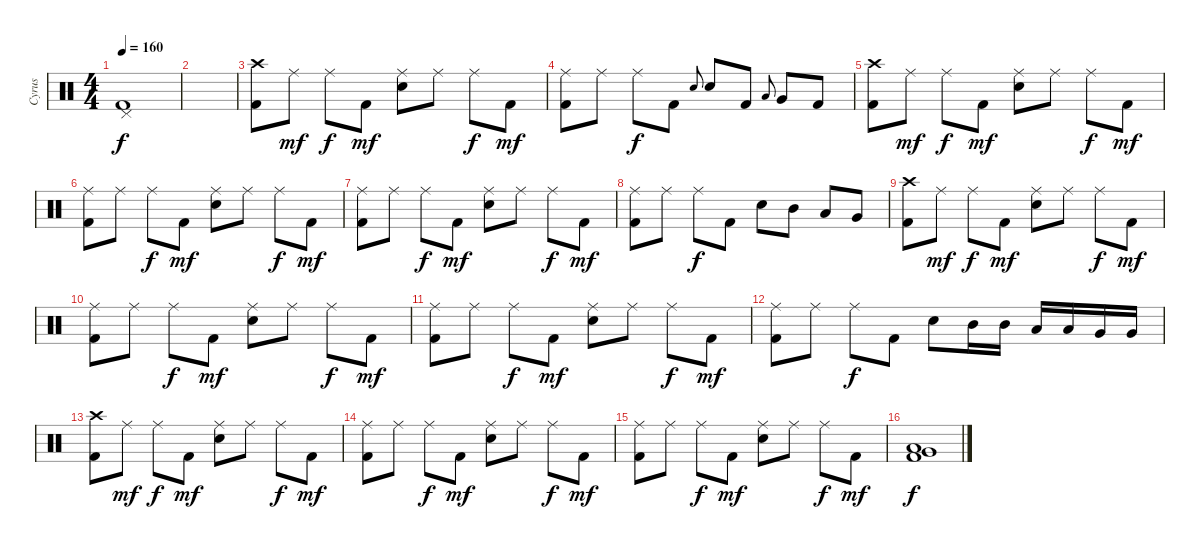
\track ("Cyrus" "Cyrus") {instrument percussion}
\staff {score}
\articulation defaults
\ts (4 4)
\tempo 160
\clef neutral
\ks c
("Pedal Hi-Hat (hit)" "Kick (hit) 2").1{dy f} |
|
("Crash high (hit)" "Kick (hit) 2").8 "Ride (middle)".8{dy mf} "Ride (middle)".8{dy f} "Kick (hit) 2".8{dy mf} ("Ride (middle)" "Snare (hit) 2").8 "Ride (middle)".8 "Ride (middle)".8{dy f} "Kick (hit) 2".8{dy mf} |
("Ride (middle)" "Kick (hit) 2").8 "Ride (middle)".8 "Ride (middle)".8{dy f} "Kick (hit) 2".8 "Snare (hit) 2".8{gr onbeat} "Snare (hit) 2".8 "Kick (hit) 2".8 "Low Tom (hit)".8{gr onbeat} "Very Low Tom (hit)".8 "Kick (hit) 2".8 |
("Crash high (hit)" "Kick (hit) 2").8 "Ride (middle)".8{dy mf} "Ride (middle)".8{dy f} "Kick (hit) 2".8{dy mf} ("Ride (middle)" "Snare (hit) 2").8 "Ride (middle)".8 "Ride (middle)".8{dy f} "Kick (hit) 2".8{dy mf} |
("Ride (middle)" "Kick (hit) 2").8 "Ride (middle)".8 "Ride (middle)".8{dy f} "Kick (hit) 2".8{dy mf} ("Ride (middle)" "Snare (hit) 2").8 "Ride (middle)".8 "Ride (middle)".8{dy f} "Kick (hit) 2".8{dy mf} |
("Ride (middle)" "Kick (hit) 2").8 "Ride (middle)".8 "Ride (middle)".8{dy f} "Kick (hit) 2".8{dy mf} ("Ride (middle)" "Snare (hit) 2").8 "Ride (middle)".8 "Ride (middle)".8{dy f} "Kick (hit) 2".8{dy mf} |
("Ride (middle)" "Kick (hit) 2").8 "Ride (middle)".8 "Ride (middle)".8{dy f} "Kick (hit) 2".8 "Snare (hit) 2".8 "Mid Tom (hit)".8 "Low Tom (hit)".8 "Very Low Tom (hit)".8 |
("Crash high (hit)" "Kick (hit) 2").8 "Ride (middle)".8{dy mf} "Ride (middle)".8{dy f} "Kick (hit) 2".8{dy mf} ("Ride (middle)" "Snare (hit) 2").8 "Ride (middle)".8 "Ride (middle)".8{dy f} "Kick (hit) 2".8{dy mf} |
("Ride (middle)" "Kick (hit) 2").8 "Ride (middle)".8 "Ride (middle)".8{dy f} "Kick (hit) 2".8{dy mf} ("Ride (middle)" "Snare (hit) 2").8 "Ride (middle)".8 "Ride (middle)".8{dy f} "Kick (hit) 2".8{dy mf} |
("Ride (middle)" "Kick (hit) 2").8 "Ride (middle)".8 "Ride (middle)".8{dy f} "Kick (hit) 2".8{dy mf} ("Ride (middle)" "Snare (hit) 2").8 "Ride (middle)".8 "Ride (middle)".8{dy f} "Kick (hit) 2".8{dy mf} |
("Ride (middle)" "Kick (hit) 2").8 "Ride (middle)".8 "Ride (middle)".8{dy f} "Kick (hit) 2".8 "Snare (hit) 2".8 "Mid Tom (hit)".16 "Mid Tom (hit)".16 "Low Tom (hit)".16 "Low Tom (hit)".16 "Very Low Tom (hit)".16 "Very Low Tom (hit)".16 |
("Crash high (hit)" "Kick (hit) 2").8 "Ride (middle)".8{dy mf} "Ride (middle)".8{dy f} "Kick (hit) 2".8{dy mf} ("Ride (middle)" "Snare (hit) 2").8 "Ride (middle)".8 "Ride (middle)".8{dy f} "Kick (hit) 2".8{dy mf} |
("Ride (middle)" "Kick (hit) 2").8 "Ride (middle)".8 "Ride (middle)".8{dy f} "Kick (hit) 2".8{dy mf} ("Ride (middle)" "Snare (hit) 2").8 "Ride (middle)".8 "Ride (middle)".8{dy f} "Kick (hit) 2".8{dy mf} |
("Ride (middle)" "Kick (hit) 2").8 "Ride (middle)".8 "Ride (middle)".8{dy f} "Kick (hit) 2".8{dy mf} ("Ride (middle)" "Snare (hit) 2").8 "Ride (middle)".8 "Ride (middle)".8{dy f} "Kick (hit) 2".8{dy mf} |
("Very Low Tom (hit)" "Low Tom (hit)" "Kick (hit) 2").1{dy f}
